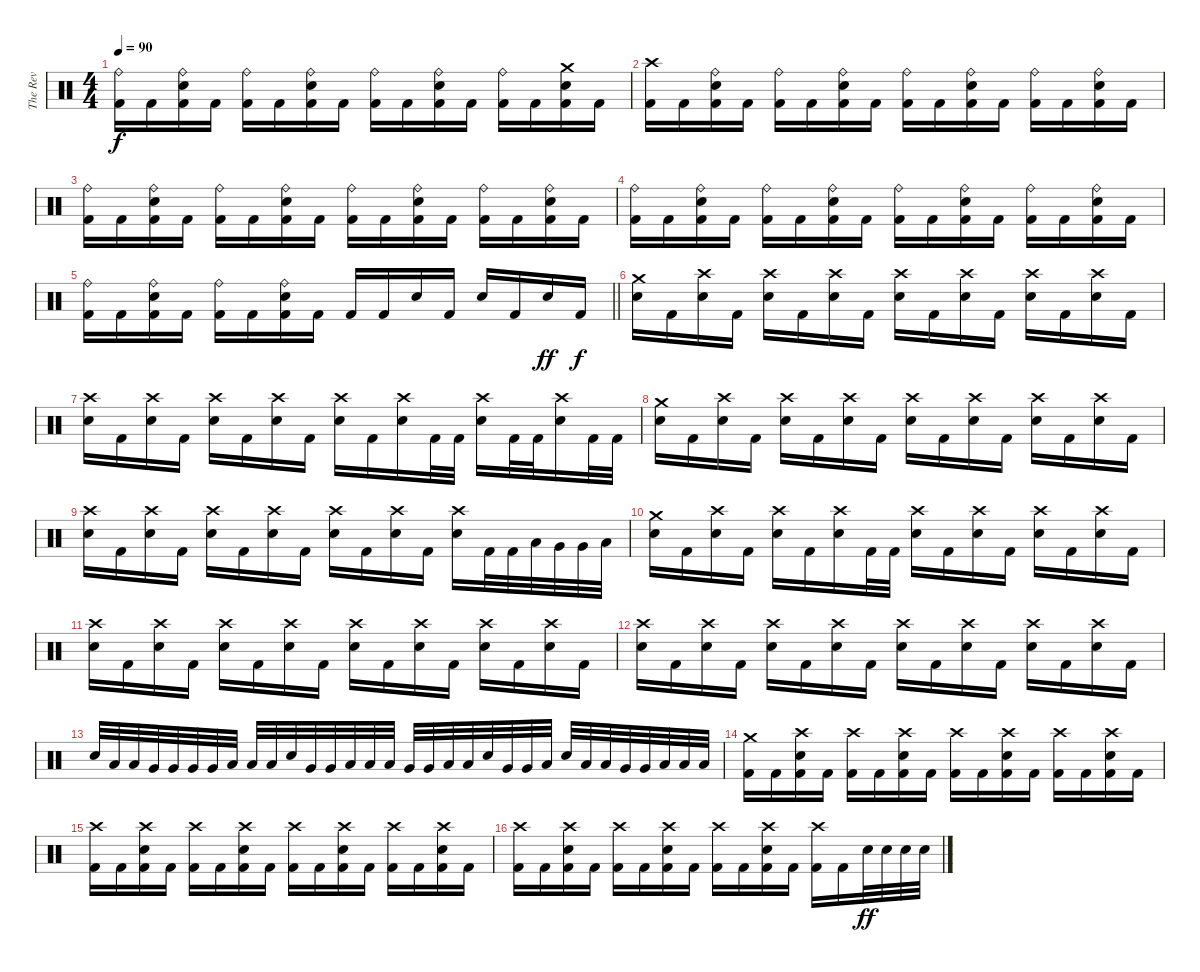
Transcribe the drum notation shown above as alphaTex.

\track ("The Rev" "The Rev") {instrument percussion}
\staff {score}
\articulation defaults
\ts (4 4)
\tempo 90
\clef neutral
\ks c
("Ride (bell)" "Kick (hit) 2").16{dy f} "Kick (hit) 2".16 ("Ride (bell)" "Electric Snare (hit)" "Kick (hit) 2").16 "Kick (hit) 2".16 ("Ride (bell)" "Kick (hit) 2").16 "Kick (hit) 2".16 ("Ride (bell)" "Electric Snare (hit)" "Kick (hit) 2").16 "Kick (hit) 2".16 ("Ride (bell)" "Kick (hit) 2").16 "Kick (hit) 2".16 ("Ride (bell)" "Electric Snare (hit)" "Kick (hit) 2").16 "Kick (hit) 2".16 ("Ride (bell)" "Kick (hit) 2").16 "Kick (hit) 2".16 ("Crash medium (hit)" "Electric Snare (hit)" "Kick (hit) 2").16 "Kick (hit) 2".16 |
("Crash high (hit)" "Kick (hit) 2").16 "Kick (hit) 2".16 ("Ride (bell)" "Electric Snare (hit)" "Kick (hit) 2").16 "Kick (hit) 2".16 ("Ride (bell)" "Kick (hit) 2").16 "Kick (hit) 2".16 ("Ride (bell)" "Electric Snare (hit)" "Kick (hit) 2").16 "Kick (hit) 2".16 ("Ride (bell)" "Kick (hit) 2").16 "Kick (hit) 2".16 ("Ride (bell)" "Electric Snare (hit)" "Kick (hit) 2").16 "Kick (hit) 2".16 ("Ride (bell)" "Kick (hit) 2").16 "Kick (hit) 2".16 ("Ride (bell)" "Electric Snare (hit)" "Kick (hit) 2").16 "Kick (hit) 2".16 |
("Ride (bell)" "Kick (hit) 2").16 "Kick (hit) 2".16 ("Ride (bell)" "Electric Snare (hit)" "Kick (hit) 2").16 "Kick (hit) 2".16 ("Ride (bell)" "Kick (hit) 2").16 "Kick (hit) 2".16 ("Ride (bell)" "Electric Snare (hit)" "Kick (hit) 2").16 "Kick (hit) 2".16 ("Ride (bell)" "Kick (hit) 2").16 "Kick (hit) 2".16 ("Ride (bell)" "Electric Snare (hit)" "Kick (hit) 2").16 "Kick (hit) 2".16 ("Ride (bell)" "Kick (hit) 2").16 "Kick (hit) 2".16 ("Ride (bell)" "Electric Snare (hit)" "Kick (hit) 2").16 "Kick (hit) 2".16 |
("Ride (bell)" "Kick (hit) 2").16 "Kick (hit) 2".16 ("Ride (bell)" "Electric Snare (hit)" "Kick (hit) 2").16 "Kick (hit) 2".16 ("Ride (bell)" "Kick (hit) 2").16 "Kick (hit) 2".16 ("Ride (bell)" "Electric Snare (hit)" "Kick (hit) 2").16 "Kick (hit) 2".16 ("Ride (bell)" "Kick (hit) 2").16 "Kick (hit) 2".16 ("Ride (bell)" "Electric Snare (hit)" "Kick (hit) 2").16 "Kick (hit) 2".16 ("Ride (bell)" "Kick (hit) 2").16 "Kick (hit) 2".16 ("Ride (bell)" "Electric Snare (hit)" "Kick (hit) 2").16 "Kick (hit) 2".16 |
\barLineRight lightlight
("Ride (bell)" "Kick (hit) 2").16 "Kick (hit) 2".16 ("Ride (bell)" "Electric Snare (hit)" "Kick (hit) 2").16 "Kick (hit) 2".16 ("Ride (bell)" "Kick (hit) 2").16 "Kick (hit) 2".16 ("Ride (bell)" "Electric Snare (hit)" "Kick (hit) 2").16 "Kick (hit) 2".16 "Kick (hit) 2".16 "Kick (hit) 2".16 "Electric Snare (hit)".16 "Kick (hit) 2".16 "Electric Snare (hit)".16 "Kick (hit) 2".16 "Electric Snare (hit)".16{dy ff} "Kick (hit) 2".16{dy f} |
("Crash medium (hit)" "Electric Snare (hit)").16 "Kick (hit) 2".16 ("Crash high (hit)" "Electric Snare (hit)").16 "Kick (hit) 2".16 ("Crash high (hit)" "Electric Snare (hit)").16 "Kick (hit) 2".16 ("Crash high (hit)" "Electric Snare (hit)").16 "Kick (hit) 2".16 ("Crash high (hit)" "Electric Snare (hit)").16 "Kick (hit) 2".16 ("Crash high (hit)" "Electric Snare (hit)").16 "Kick (hit) 2".16 ("Crash high (hit)" "Electric Snare (hit)").16 "Kick (hit) 2".16 ("Crash high (hit)" "Electric Snare (hit)").16 "Kick (hit) 2".16 |
("Crash high (hit)" "Electric Snare (hit)").16 "Kick (hit) 2".16 ("Crash high (hit)" "Electric Snare (hit)").16 "Kick (hit) 2".16 ("Crash high (hit)" "Electric Snare (hit)").16 "Kick (hit) 2".16 ("Crash high (hit)" "Electric Snare (hit)").16 "Kick (hit) 2".16 ("Crash high (hit)" "Electric Snare (hit)").16 "Kick (hit) 2".16 ("Crash high (hit)" "Electric Snare (hit)").16 "Kick (hit) 2".32 "Kick (hit) 2".32 ("Crash high (hit)" "Electric Snare (hit)").16 "Kick (hit) 2".32 "Kick (hit) 2".32 ("Crash high (hit)" "Electric Snare (hit)").16 "Kick (hit) 2".32 "Kick (hit) 2".32 |
("Crash medium (hit)" "Electric Snare (hit)").16 "Kick (hit) 2".16 ("Crash high (hit)" "Electric Snare (hit)").16 "Kick (hit) 2".16 ("Crash high (hit)" "Electric Snare (hit)").16 "Kick (hit) 2".16 ("Crash high (hit)" "Electric Snare (hit)").16 "Kick (hit) 2".16 ("Crash high (hit)" "Electric Snare (hit)").16 "Kick (hit) 2".16 ("Crash high (hit)" "Electric Snare (hit)").16 "Kick (hit) 2".16 ("Crash high (hit)" "Electric Snare (hit)").16 "Kick (hit) 2".16 ("Crash high (hit)" "Electric Snare (hit)").16 "Kick (hit) 2".16 |
("Crash high (hit)" "Electric Snare (hit)").16 "Kick (hit) 2".16 ("Crash high (hit)" "Electric Snare (hit)").16 "Kick (hit) 2".16 ("Crash high (hit)" "Electric Snare (hit)").16 "Kick (hit) 2".16 ("Crash high (hit)" "Electric Snare (hit)").16 "Kick (hit) 2".16 ("Crash high (hit)" "Electric Snare (hit)").16 "Kick (hit) 2".16 ("Crash high (hit)" "Electric Snare (hit)").16 "Kick (hit) 2".16 ("Crash high (hit)" "Electric Snare (hit)").16 "Kick (hit) 2".32 "Kick (hit) 2".32 "Low Tom (hit)".32 "Very Low Tom (hit)".32 "Very Low Tom (hit)".32 "Low Floor Tom (hit)".32 |
("Crash medium (hit)" "Electric Snare (hit)").16 "Kick (hit) 2".16 ("Crash high (hit)" "Electric Snare (hit)").16 "Kick (hit) 2".16 ("Crash high (hit)" "Electric Snare (hit)").16 "Kick (hit) 2".16 ("Crash high (hit)" "Electric Snare (hit)").16 "Kick (hit) 2".32 "Kick (hit) 2".32 ("Crash high (hit)" "Electric Snare (hit)").16 "Kick (hit) 2".16 ("Crash high (hit)" "Electric Snare (hit)").16 "Kick (hit) 2".16 ("Crash high (hit)" "Electric Snare (hit)").16 "Kick (hit) 2".16 ("Crash high (hit)" "Electric Snare (hit)").16 "Kick (hit) 2".16 |
("Crash high (hit)" "Electric Snare (hit)").16 "Kick (hit) 2".16 ("Crash high (hit)" "Electric Snare (hit)").16 "Kick (hit) 2".16 ("Crash high (hit)" "Electric Snare (hit)").16 "Kick (hit) 2".16 ("Crash high (hit)" "Electric Snare (hit)").16 "Kick (hit) 2".16 ("Crash high (hit)" "Electric Snare (hit)").16 "Kick (hit) 2".16 ("Crash high (hit)" "Electric Snare (hit)").16 "Kick (hit) 2".16 ("Crash high (hit)" "Electric Snare (hit)").16 "Kick (hit) 2".16 ("Crash high (hit)" "Electric Snare (hit)").16 "Kick (hit) 2".16 |
("Crash high (hit)" "Electric Snare (hit)").16 "Kick (hit) 2".16 ("Crash high (hit)" "Electric Snare (hit)").16 "Kick (hit) 2".16 ("Crash high (hit)" "Electric Snare (hit)").16 "Kick (hit) 2".16 ("Crash high (hit)" "Electric Snare (hit)").16 "Kick (hit) 2".16 ("Crash high (hit)" "Electric Snare (hit)").16 "Kick (hit) 2".16 ("Crash high (hit)" "Electric Snare (hit)").16 "Kick (hit) 2".16 ("Crash high (hit)" "Electric Snare (hit)").16 "Kick (hit) 2".16 ("Crash high (hit)" "Electric Snare (hit)").16 "Kick (hit) 2".16 |
"Electric Snare (hit)".32 "Low Tom (hit)".32 "Low Tom (hit)".32 "Very Low Tom (hit)".32 "Very Low Tom (hit)".32 "Very Low Tom (hit)".32 "Very Low Tom (hit)".32 "Low Floor Tom (hit)".32 "Low Floor Tom (hit)".32 "Low Floor Tom (hit)".32 "Electric Snare (hit)".32 "Very Low Tom (hit)".32 "Very Low Tom (hit)".32 "Low Floor Tom (hit)".32 "Low Floor Tom (hit)".32 "Low Floor Tom (hit)".32 "Very Low Tom (hit)".32 "Very Low Tom (hit)".32 "Low Floor Tom (hit)".32 "Low Floor Tom (hit)".32 "Electric Snare (hit)".32 "Very Low Tom (hit)".32 "Very Low Tom (hit)".32 "Low Floor Tom (hit)".32 "Electric Snare (hit)".32 "Low Tom (hit)".32 "Low Tom (hit)".32 "Very Low Tom (hit)".32 "Very Low Tom (hit)".32 "Low Floor Tom (hit)".32 "Low Floor Tom (hit)".32 "Low Floor Tom (hit)".32 |
("Crash medium (hit)" "Kick (hit) 2").16 "Kick (hit) 2".16 ("Crash high (hit)" "Electric Snare (hit)" "Kick (hit) 2").16 "Kick (hit) 2".16 ("Crash high (hit)" "Kick (hit) 2").16 "Kick (hit) 2".16 ("Crash high (hit)" "Electric Snare (hit)" "Kick (hit) 2").16 "Kick (hit) 2".16 ("Crash high (hit)" "Kick (hit) 2").16 "Kick (hit) 2".16 ("Crash high (hit)" "Electric Snare (hit)" "Kick (hit) 2").16 "Kick (hit) 2".16 ("Crash high (hit)" "Kick (hit) 2").16 "Kick (hit) 2".16 ("Crash high (hit)" "Electric Snare (hit)" "Kick (hit) 2").16 "Kick (hit) 2".16 |
("Crash high (hit)" "Kick (hit) 2").16 "Kick (hit) 2".16 ("Crash high (hit)" "Electric Snare (hit)" "Kick (hit) 2").16 "Kick (hit) 2".16 ("Crash high (hit)" "Kick (hit) 2").16 "Kick (hit) 2".16 ("Crash high (hit)" "Electric Snare (hit)" "Kick (hit) 2").16 "Kick (hit) 2".16 ("Crash high (hit)" "Kick (hit) 2").16 "Kick (hit) 2".16 ("Crash high (hit)" "Electric Snare (hit)" "Kick (hit) 2").16 "Kick (hit) 2".16 ("Crash high (hit)" "Kick (hit) 2").16 "Kick (hit) 2".16 ("Crash high (hit)" "Electric Snare (hit)" "Kick (hit) 2").16 "Kick (hit) 2".16 |
("Crash high (hit)" "Kick (hit) 2").16 "Kick (hit) 2".16 ("Crash high (hit)" "Electric Snare (hit)" "Kick (hit) 2").16 "Kick (hit) 2".16 ("Crash high (hit)" "Kick (hit) 2").16 "Kick (hit) 2".16 ("Crash high (hit)" "Electric Snare (hit)" "Kick (hit) 2").16 "Kick (hit) 2".16 ("Crash high (hit)" "Kick (hit) 2").16 "Kick (hit) 2".16 ("Crash high (hit)" "Electric Snare (hit)" "Kick (hit) 2").16 "Kick (hit) 2".16 ("Crash high (hit)" "Kick (hit) 2").16 "Kick (hit) 2".16 "Electric Snare (hit)".32{dy ff} "Electric Snare (hit)".32 "Electric Snare (hit)".32 "Electric Snare (hit)".32
